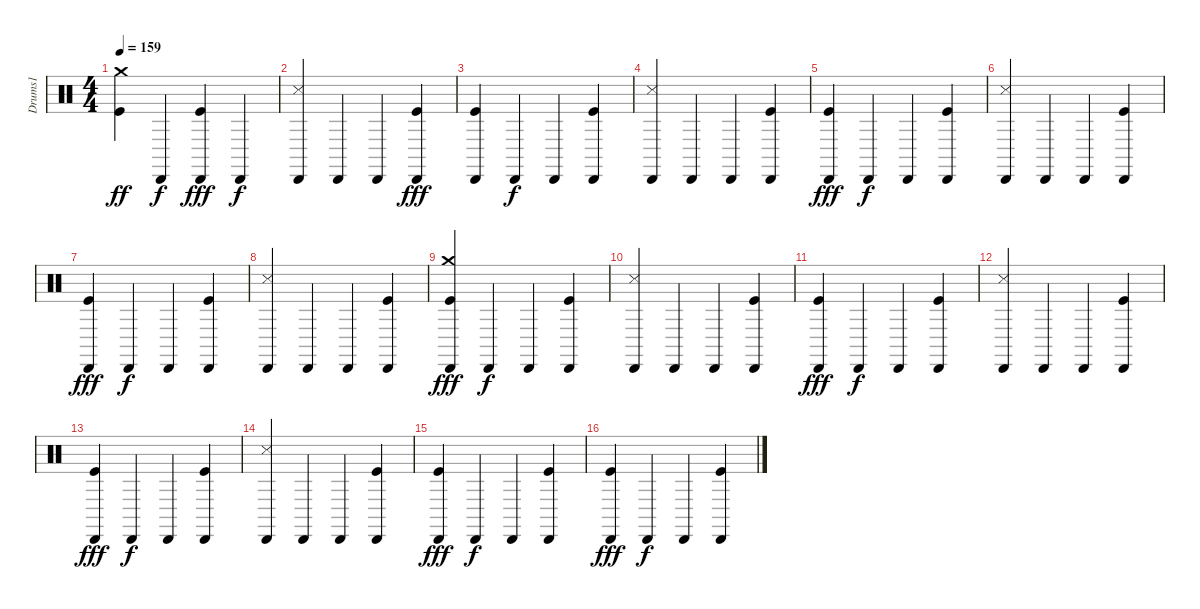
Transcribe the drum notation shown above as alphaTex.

\track ("Drums1" "Drums1") {instrument percussion}
\staff {score}
\articulation defaults
\ts (4 4)
\tempo 159
\clef neutral
\ks c
("Crash medium (hit)" "Kick (hit)").4{dy ff} "Cabasa (hit)".4{dy f} ("Cabasa (hit)" "Kick (hit)").4{dy fff} "Cabasa (hit)".4{dy f} |
("Cabasa (hit)" "Snare (side stick) 3").4 "Cabasa (hit)".4 "Cabasa (hit)".4 ("Cabasa (hit)" "Kick (hit)").4{dy fff} |
("Cabasa (hit)" "Kick (hit)").4 "Cabasa (hit)".4{dy f} "Cabasa (hit)".4 ("Cabasa (hit)" "Kick (hit)").4 |
("Cabasa (hit)" "Snare (side stick) 3").4 "Cabasa (hit)".4 "Cabasa (hit)".4 ("Cabasa (hit)" "Kick (hit)").4 |
("Cabasa (hit)" "Kick (hit)").4{dy fff} "Cabasa (hit)".4{dy f} "Cabasa (hit)".4 ("Cabasa (hit)" "Kick (hit)").4 |
("Cabasa (hit)" "Snare (side stick) 3").4 "Cabasa (hit)".4 "Cabasa (hit)".4 ("Cabasa (hit)" "Kick (hit)").4 |
("Cabasa (hit)" "Kick (hit)").4{dy fff} "Cabasa (hit)".4{dy f} "Cabasa (hit)".4 ("Cabasa (hit)" "Kick (hit)").4 |
("Cabasa (hit)" "Snare (side stick) 3").4 "Cabasa (hit)".4 "Cabasa (hit)".4 ("Cabasa (hit)" "Kick (hit)").4 |
("Cabasa (hit)" "Kick (hit)" "Crash medium (hit)").4{dy fff} "Cabasa (hit)".4{dy f} "Cabasa (hit)".4 ("Cabasa (hit)" "Kick (hit)").4 |
("Cabasa (hit)" "Snare (side stick) 3").4 "Cabasa (hit)".4 "Cabasa (hit)".4 ("Cabasa (hit)" "Kick (hit)").4 |
("Cabasa (hit)" "Kick (hit)").4{dy fff} "Cabasa (hit)".4{dy f} "Cabasa (hit)".4 ("Cabasa (hit)" "Kick (hit)").4 |
("Cabasa (hit)" "Snare (side stick) 3").4 "Cabasa (hit)".4 "Cabasa (hit)".4 ("Cabasa (hit)" "Kick (hit)").4 |
("Cabasa (hit)" "Kick (hit)").4{dy fff} "Cabasa (hit)".4{dy f} "Cabasa (hit)".4 ("Cabasa (hit)" "Kick (hit)").4 |
("Cabasa (hit)" "Snare (side stick) 3").4 "Cabasa (hit)".4 "Cabasa (hit)".4 ("Cabasa (hit)" "Kick (hit)").4 |
("Cabasa (hit)" "Kick (hit)").4{dy fff} "Cabasa (hit)".4{dy f} "Cabasa (hit)".4 ("Cabasa (hit)" "Kick (hit)").4 |
("Cabasa (hit)" "Kick (hit)").4{dy fff} "Cabasa (hit)".4{dy f} "Cabasa (hit)".4 ("Cabasa (hit)" "Kick (hit)").4
